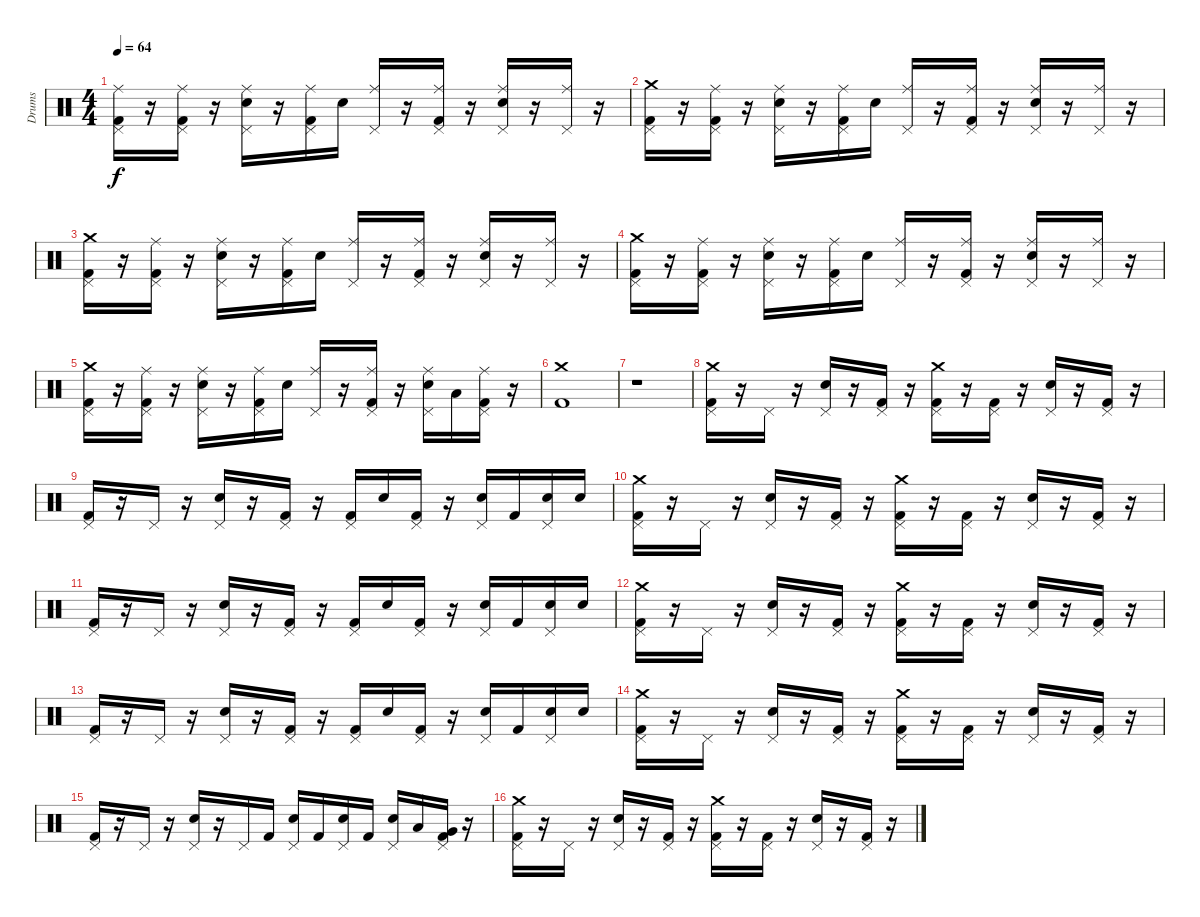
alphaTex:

\track ("Drums" "Drums") {instrument percussion}
\staff {score}
\articulation defaults
\ts (4 4)
\tempo 64
\clef neutral
\ks c
("Ride (middle)" "Pedal Hi-Hat (hit)" "Kick (hit) 2").16{dy f} r.16 ("Ride (middle)" "Pedal Hi-Hat (hit)" "Kick (hit) 2").16 r.16 ("Ride (middle)" "Pedal Hi-Hat (hit)" "Snare (hit) 2").16 r.16 ("Ride (middle)" "Pedal Hi-Hat (hit)" "Kick (hit) 2").16 "Snare (hit) 2".16 ("Ride (middle)" "Pedal Hi-Hat (hit)").16 r.16 ("Ride (middle)" "Pedal Hi-Hat (hit)" "Kick (hit) 2").16 r.16 ("Ride (middle)" "Pedal Hi-Hat (hit)" "Snare (hit) 2").16 r.16 ("Ride (middle)" "Pedal Hi-Hat (hit)").16 r.16 |
("Crash medium (hit)" "Pedal Hi-Hat (hit)" "Kick (hit) 2").16 r.16 ("Ride (middle)" "Pedal Hi-Hat (hit)" "Kick (hit) 2").16 r.16 ("Ride (middle)" "Pedal Hi-Hat (hit)" "Snare (hit) 2").16 r.16 ("Ride (middle)" "Pedal Hi-Hat (hit)" "Kick (hit) 2").16 "Snare (hit) 2".16 ("Ride (middle)" "Pedal Hi-Hat (hit)").16 r.16 ("Ride (middle)" "Pedal Hi-Hat (hit)" "Kick (hit) 2").16 r.16 ("Ride (middle)" "Pedal Hi-Hat (hit)" "Snare (hit) 2").16 r.16 ("Ride (middle)" "Pedal Hi-Hat (hit)").16 r.16 |
("Crash medium (hit)" "Pedal Hi-Hat (hit)" "Kick (hit) 2").16 r.16 ("Ride (middle)" "Pedal Hi-Hat (hit)" "Kick (hit) 2").16 r.16 ("Ride (middle)" "Pedal Hi-Hat (hit)" "Snare (hit) 2").16 r.16 ("Ride (middle)" "Pedal Hi-Hat (hit)" "Kick (hit) 2").16 "Snare (hit) 2".16 ("Ride (middle)" "Pedal Hi-Hat (hit)").16 r.16 ("Ride (middle)" "Pedal Hi-Hat (hit)" "Kick (hit) 2").16 r.16 ("Ride (middle)" "Pedal Hi-Hat (hit)" "Snare (hit) 2").16 r.16 ("Ride (middle)" "Pedal Hi-Hat (hit)").16 r.16 |
("Crash medium (hit)" "Pedal Hi-Hat (hit)" "Kick (hit) 2").16 r.16 ("Ride (middle)" "Pedal Hi-Hat (hit)" "Kick (hit) 2").16 r.16 ("Ride (middle)" "Pedal Hi-Hat (hit)" "Snare (hit) 2").16 r.16 ("Ride (middle)" "Pedal Hi-Hat (hit)" "Kick (hit) 2").16 "Snare (hit) 2".16 ("Ride (middle)" "Pedal Hi-Hat (hit)").16 r.16 ("Ride (middle)" "Pedal Hi-Hat (hit)" "Kick (hit) 2").16 r.16 ("Ride (middle)" "Pedal Hi-Hat (hit)" "Snare (hit) 2").16 r.16 ("Ride (middle)" "Pedal Hi-Hat (hit)").16 r.16 |
("Crash medium (hit)" "Pedal Hi-Hat (hit)" "Kick (hit) 2").16 r.16 ("Ride (middle)" "Pedal Hi-Hat (hit)" "Kick (hit) 2").16 r.16 ("Ride (middle)" "Pedal Hi-Hat (hit)" "Snare (hit) 2").16 r.16 ("Ride (middle)" "Pedal Hi-Hat (hit)" "Kick (hit) 2").16 "Snare (hit) 2".16 ("Ride (middle)" "Pedal Hi-Hat (hit)").16 r.16 ("Ride (middle)" "Pedal Hi-Hat (hit)" "Kick (hit) 2").16 r.16 ("Ride (middle)" "Pedal Hi-Hat (hit)" "Snare (hit) 2").16 "Low Tom (hit)".16 ("Ride (middle)" "Pedal Hi-Hat (hit)" "Kick (hit) 2").16 r.16 |
("Crash medium (hit)" "Kick (hit) 2").1 |
r.1 |
("Crash medium (hit)" "Pedal Hi-Hat (hit)" "Kick (hit) 2").16{volume 16} r.16 "Pedal Hi-Hat (hit)".16 r.16 ("Pedal Hi-Hat (hit)" "Snare (hit) 2").16 r.16 ("Pedal Hi-Hat (hit)" "Kick (hit) 2").16 r.16 ("Crash medium (hit)" "Pedal Hi-Hat (hit)" "Kick (hit) 2").16 r.16 ("Pedal Hi-Hat (hit)" "Kick (hit) 2").16 r.16 ("Pedal Hi-Hat (hit)" "Snare (hit) 2").16 r.16 ("Pedal Hi-Hat (hit)" "Kick (hit) 2").16 r.16 |
("Pedal Hi-Hat (hit)" "Kick (hit) 2").16 r.16 "Pedal Hi-Hat (hit)".16 r.16 ("Pedal Hi-Hat (hit)" "Snare (hit) 2").16 r.16 ("Pedal Hi-Hat (hit)" "Kick (hit) 2").16 r.16 ("Pedal Hi-Hat (hit)" "Kick (hit) 2").16 "Snare (hit) 2".16 ("Pedal Hi-Hat (hit)" "Kick (hit) 2").16 r.16 ("Pedal Hi-Hat (hit)" "Snare (hit) 2").16 "Kick (hit) 2".16 ("Pedal Hi-Hat (hit)" "Snare (hit) 2").16 "Snare (hit) 2".16 |
("Crash medium (hit)" "Pedal Hi-Hat (hit)" "Kick (hit) 2").16 r.16 "Pedal Hi-Hat (hit)".16 r.16 ("Pedal Hi-Hat (hit)" "Snare (hit) 2").16 r.16 ("Pedal Hi-Hat (hit)" "Kick (hit) 2").16 r.16 ("Crash medium (hit)" "Pedal Hi-Hat (hit)" "Kick (hit) 2").16 r.16 ("Pedal Hi-Hat (hit)" "Kick (hit) 2").16 r.16 ("Pedal Hi-Hat (hit)" "Snare (hit) 2").16 r.16 ("Pedal Hi-Hat (hit)" "Kick (hit) 2").16 r.16 |
("Pedal Hi-Hat (hit)" "Kick (hit) 2").16 r.16 "Pedal Hi-Hat (hit)".16 r.16 ("Pedal Hi-Hat (hit)" "Snare (hit) 2").16 r.16 ("Pedal Hi-Hat (hit)" "Kick (hit) 2").16 r.16 ("Pedal Hi-Hat (hit)" "Kick (hit) 2").16 "Snare (hit) 2".16 ("Pedal Hi-Hat (hit)" "Kick (hit) 2").16 r.16 ("Pedal Hi-Hat (hit)" "Snare (hit) 2").16 "Kick (hit) 2".16 ("Pedal Hi-Hat (hit)" "Snare (hit) 2").16 "Snare (hit) 2".16 |
("Crash medium (hit)" "Pedal Hi-Hat (hit)" "Kick (hit) 2").16 r.16 "Pedal Hi-Hat (hit)".16 r.16 ("Pedal Hi-Hat (hit)" "Snare (hit) 2").16 r.16 ("Pedal Hi-Hat (hit)" "Kick (hit) 2").16 r.16 ("Crash medium (hit)" "Pedal Hi-Hat (hit)" "Kick (hit) 2").16 r.16 ("Pedal Hi-Hat (hit)" "Kick (hit) 2").16 r.16 ("Pedal Hi-Hat (hit)" "Snare (hit) 2").16 r.16 ("Pedal Hi-Hat (hit)" "Kick (hit) 2").16 r.16 |
("Pedal Hi-Hat (hit)" "Kick (hit) 2").16 r.16 "Pedal Hi-Hat (hit)".16 r.16 ("Pedal Hi-Hat (hit)" "Snare (hit) 2").16 r.16 ("Pedal Hi-Hat (hit)" "Kick (hit) 2").16 r.16 ("Pedal Hi-Hat (hit)" "Kick (hit) 2").16 "Snare (hit) 2".16 ("Pedal Hi-Hat (hit)" "Kick (hit) 2").16 r.16 ("Pedal Hi-Hat (hit)" "Snare (hit) 2").16 "Kick (hit) 2".16 ("Pedal Hi-Hat (hit)" "Snare (hit) 2").16 "Snare (hit) 2".16 |
("Crash medium (hit)" "Pedal Hi-Hat (hit)" "Kick (hit) 2").16 r.16 "Pedal Hi-Hat (hit)".16 r.16 ("Pedal Hi-Hat (hit)" "Snare (hit) 2").16 r.16 ("Pedal Hi-Hat (hit)" "Kick (hit) 2").16 r.16 ("Crash medium (hit)" "Pedal Hi-Hat (hit)" "Kick (hit) 2").16 r.16 ("Pedal Hi-Hat (hit)" "Kick (hit) 2").16 r.16 ("Pedal Hi-Hat (hit)" "Snare (hit) 2").16 r.16 ("Pedal Hi-Hat (hit)" "Kick (hit) 2").16 r.16 |
("Pedal Hi-Hat (hit)" "Kick (hit) 2").16 r.16 "Pedal Hi-Hat (hit)".16 r.16 ("Pedal Hi-Hat (hit)" "Snare (hit) 2").16 r.16 "Pedal Hi-Hat (hit)".16 "Kick (hit) 2".16 ("Pedal Hi-Hat (hit)" "Snare (hit) 2").16 "Kick (hit) 2".16 ("Pedal Hi-Hat (hit)" "Snare (hit) 2").16 "Kick (hit) 2".16 ("Pedal Hi-Hat (hit)" "Snare (hit) 2").16 "Low Tom (hit)".16 ("Pedal Hi-Hat (hit)" "Very Low Tom (hit)" "Kick (hit) 2").16 r.16 |
("Crash medium (hit)" "Pedal Hi-Hat (hit)" "Kick (hit) 2").16 r.16 "Pedal Hi-Hat (hit)".16 r.16 ("Pedal Hi-Hat (hit)" "Snare (hit) 2").16 r.16 ("Pedal Hi-Hat (hit)" "Kick (hit) 2").16 r.16 ("Crash medium (hit)" "Pedal Hi-Hat (hit)" "Kick (hit) 2").16 r.16 ("Pedal Hi-Hat (hit)" "Kick (hit) 2").16 r.16 ("Pedal Hi-Hat (hit)" "Snare (hit) 2").16 r.16 ("Pedal Hi-Hat (hit)" "Kick (hit) 2").16 r.16
